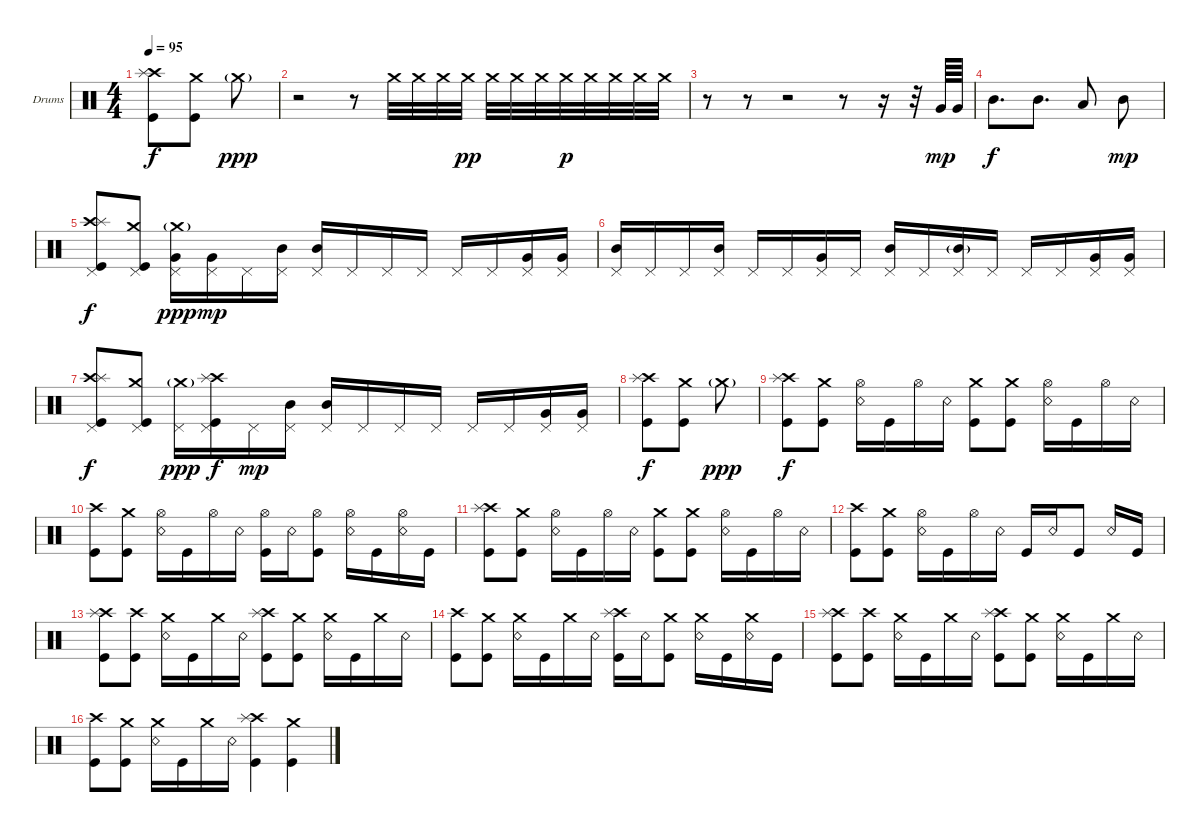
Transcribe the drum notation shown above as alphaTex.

\defaultSystemsLayout 4
\bracketExtendMode groupsimilarinstruments
\firstSystemTrackNameOrientation horizontal
\otherSystemsTrackNameOrientation horizontal
\track ("Drumkit" "Drums") {instrument percussion}
\staff {score}
\articulation defaults
\ts (4 4)
\tempo 95
\clef neutral
\ks c
("Kick (hit)" "Crash high (hit)" "Splash (hit)").8{dy f} ("Kick (hit)" "Crash medium (hit)").8 "Crash medium (hit)"{g}.8{dy ppp} |
r.2 r.8 "Crash medium (hit)".32 "Crash medium (hit)".32 "Crash medium (hit)".32 "Crash medium (hit)".32{dy pp} "Crash medium (hit)".32 "Crash medium (hit)".32 "Crash medium (hit)".32 "Crash medium (hit)".32{dy p} "Crash medium (hit)".32 "Crash medium (hit)".32 "Crash medium (hit)".32 "Crash medium (hit)".32 |
r.8 r.8 r.2 r.8 r.16 r.32 "Very Low Tom (hit)".64{dy mp} "Very Low Tom (hit)".64 |
"Mid Tom (hit)".8{d dy f} "Mid Tom (hit)".8{d} "Low Tom (hit)".8 "Mid Tom (hit)".8{dy mp} |
("Kick (hit)" "Crash high (hit)" "Splash (hit)" "Pedal Hi-Hat (hit)").8{dy f} ("Kick (hit)" "Crash medium (hit)" "Pedal Hi-Hat (hit)").8 ("Crash medium (hit)"{g} "Pedal Hi-Hat (hit)" "Very Low Tom (hit)").16{dy ppp} ("Pedal Hi-Hat (hit)" "Very Low Tom (hit)").16{dy mp} "Pedal Hi-Hat (hit)".16 ("Pedal Hi-Hat (hit)" "Mid Tom (hit)").16 ("Pedal Hi-Hat (hit)" "Mid Tom (hit)").16 "Pedal Hi-Hat (hit)".16 "Pedal Hi-Hat (hit)".16 "Pedal Hi-Hat (hit)".16 "Pedal Hi-Hat (hit)".16 "Pedal Hi-Hat (hit)".16 ("Pedal Hi-Hat (hit)" "Very Low Tom (hit)").16 ("Pedal Hi-Hat (hit)" "Very Low Tom (hit)").16 |
("Pedal Hi-Hat (hit)" "Mid Tom (hit)").16 "Pedal Hi-Hat (hit)".16 "Pedal Hi-Hat (hit)".16 ("Pedal Hi-Hat (hit)" "Mid Tom (hit)").16 "Pedal Hi-Hat (hit)".16 "Pedal Hi-Hat (hit)".16 ("Pedal Hi-Hat (hit)" "Very Low Tom (hit)").16 "Pedal Hi-Hat (hit)".16 ("Pedal Hi-Hat (hit)" "Mid Tom (hit)").16 "Pedal Hi-Hat (hit)".16 ("Pedal Hi-Hat (hit)" "Mid Tom (hit)"{g}).16 "Pedal Hi-Hat (hit)".16 "Pedal Hi-Hat (hit)".16 "Pedal Hi-Hat (hit)".16 ("Pedal Hi-Hat (hit)" "Very Low Tom (hit)").16 ("Pedal Hi-Hat (hit)" "Very Low Tom (hit)").16 |
("Kick (hit)" "Crash high (hit)" "Splash (hit)" "Pedal Hi-Hat (hit)").8{dy f} ("Kick (hit)" "Crash medium (hit)" "Pedal Hi-Hat (hit)").8 ("Crash medium (hit)"{g} "Pedal Hi-Hat (hit)").16{dy ppp} ("Kick (hit)" "Crash high (hit)" "Splash (hit)" "Pedal Hi-Hat (hit)").16{dy f} "Pedal Hi-Hat (hit)".16{dy mp} ("Pedal Hi-Hat (hit)" "Mid Tom (hit)").16 ("Pedal Hi-Hat (hit)" "Mid Tom (hit)").16 "Pedal Hi-Hat (hit)".16 "Pedal Hi-Hat (hit)".16 "Pedal Hi-Hat (hit)".16 "Pedal Hi-Hat (hit)".16 "Pedal Hi-Hat (hit)".16 ("Pedal Hi-Hat (hit)" "Very Low Tom (hit)").16 ("Pedal Hi-Hat (hit)" "Very Low Tom (hit)").16 |
("Kick (hit)" "Crash high (hit)" "Splash (hit)").8{dy f} ("Kick (hit)" "Crash medium (hit)").8 "Crash medium (hit)"{g}.8{dy ppp} |
("Kick (hit)" "Crash high (hit)" "Splash (hit)").8{dy f} ("Kick (hit)" "Crash medium (hit)").8 ("Snare (rim shot)" "Hi-Hat (open)").16 "Kick (hit)".16 "Hi-Hat (open)".16 "Snare (rim shot)".16 ("Kick (hit)" "Crash medium (hit)").8 ("Kick (hit)" "Crash medium (hit)").8 ("Snare (rim shot)" "Hi-Hat (open)").16 "Kick (hit)".16 "Hi-Hat (open)".16 "Snare (rim shot)".16 |
("Kick (hit)" "Crash high (hit)").8 ("Kick (hit)" "Crash medium (hit)").8 ("Snare (rim shot)" "Hi-Hat (open)").16 "Kick (hit)".16 "Hi-Hat (open)".16 "Snare (rim shot)".16 ("Kick (hit)" "Hi-Hat (open)").16 "Snare (rim shot)".16 ("Kick (hit)" "Hi-Hat (open)").8 ("Hi-Hat (open)" "Snare (rim shot)").16 "Kick (hit)".16 ("Hi-Hat (open)" "Snare (rim shot)").16 "Kick (hit)".16 |
("Kick (hit)" "Crash high (hit)" "Splash (hit)").8 ("Kick (hit)" "Crash medium (hit)").8 ("Snare (rim shot)" "Hi-Hat (open)").16 "Kick (hit)".16 "Hi-Hat (open)".16 "Snare (rim shot)".16 ("Kick (hit)" "Crash medium (hit)").8 ("Kick (hit)" "Crash medium (hit)").8 ("Snare (rim shot)" "Hi-Hat (open)").16 "Kick (hit)".16 "Hi-Hat (open)".16 "Snare (rim shot)".16 |
("Kick (hit)" "Crash high (hit)").8 ("Kick (hit)" "Crash medium (hit)").8 ("Snare (rim shot)" "Hi-Hat (open)").16 "Kick (hit)".16 "Hi-Hat (open)".16 "Snare (rim shot)".16 "Kick (hit)".16 "Snare (rim shot)".16 "Kick (hit)".8 "Snare (rim shot)".16 "Kick (hit)".16 |
("Kick (hit)" "Crash high (hit)" "Splash (hit)").8 ("Kick (hit)" "Crash high (hit)").8 ("Snare (rim shot)" "Crash medium (hit)").16 "Kick (hit)".16 "Crash medium (hit)".16 "Snare (rim shot)".16 ("Kick (hit)" "Crash high (hit)" "Splash (hit)").8 ("Kick (hit)" "Crash medium (hit)").8 ("Snare (rim shot)" "Crash medium (hit)").16 "Kick (hit)".16 "Crash medium (hit)".16 "Snare (rim shot)".16 |
("Kick (hit)" "Crash high (hit)").8 ("Kick (hit)" "Crash medium (hit)").8 ("Snare (rim shot)" "Crash medium (hit)").16 "Kick (hit)".16 "Crash medium (hit)".16 "Snare (rim shot)".16 ("Kick (hit)" "Crash high (hit)" "Splash (hit)").16 "Snare (rim shot)".16 ("Kick (hit)" "Crash medium (hit)").8 ("Snare (rim shot)" "Crash medium (hit)").16 "Kick (hit)".16 ("Snare (rim shot)" "Crash medium (hit)").16 "Kick (hit)".16 |
("Kick (hit)" "Crash high (hit)" "Splash (hit)").8 ("Kick (hit)" "Crash high (hit)").8 ("Snare (rim shot)" "Crash medium (hit)").16 "Kick (hit)".16 "Crash medium (hit)".16 "Snare (rim shot)".16 ("Kick (hit)" "Crash high (hit)" "Splash (hit)").8 ("Kick (hit)" "Crash medium (hit)").8 ("Snare (rim shot)" "Crash medium (hit)").16 "Kick (hit)".16 "Crash medium (hit)".16 "Snare (rim shot)".16 |
("Kick (hit)" "Crash high (hit)").8 ("Kick (hit)" "Crash medium (hit)").8 ("Snare (rim shot)" "Crash medium (hit)").16 "Kick (hit)".16 "Crash medium (hit)".16 "Snare (rim shot)".16 ("Kick (hit)" "Crash high (hit)" "Splash (hit)").4 ("Kick (hit)" "Crash medium (hit)").4
